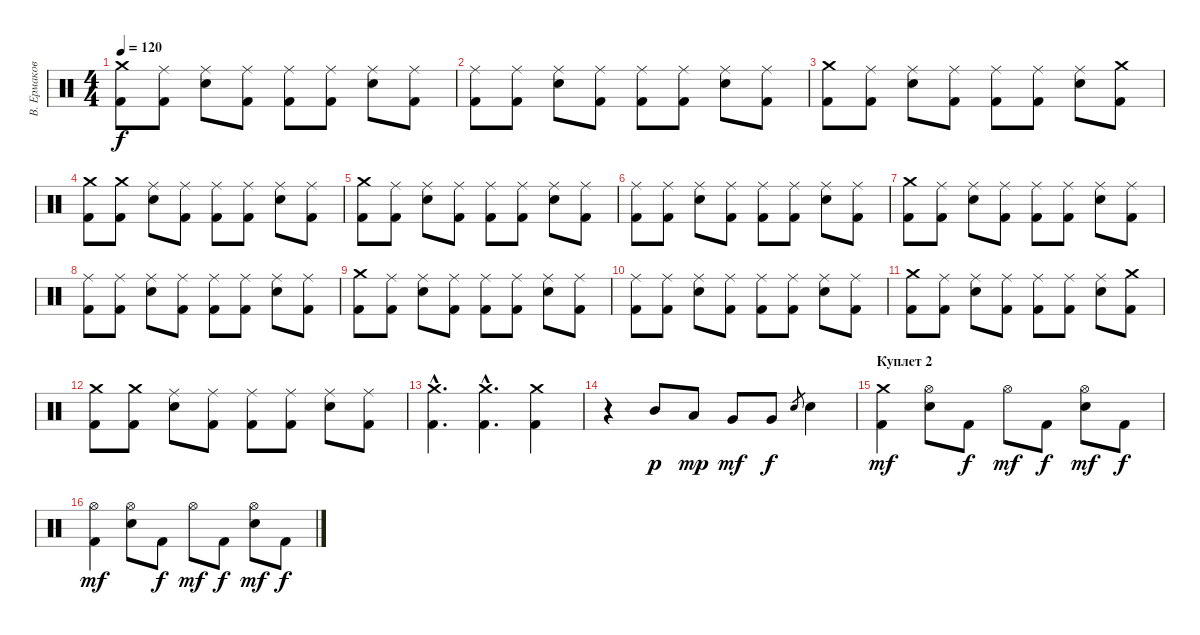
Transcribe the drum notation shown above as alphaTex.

\track ("В. Ермаков" "В. Ермаков") {instrument percussion}
\staff {score}
\articulation defaults
\ts (4 4)
\tempo 120
\clef neutral
\ks c
("Crash medium (hit)" "Kick (hit) 2").8{dy f} ("Ride (middle)" "Kick (hit) 2").8 ("Ride (middle)" "Electric Snare (hit)").8 ("Ride (middle)" "Kick (hit) 2").8 ("Ride (middle)" "Kick (hit) 2").8 ("Ride (middle)" "Kick (hit) 2").8 ("Ride (middle)" "Electric Snare (hit)").8 ("Ride (middle)" "Kick (hit) 2").8 |
("Ride (middle)" "Kick (hit) 2").8 ("Ride (middle)" "Kick (hit) 2").8 ("Ride (middle)" "Electric Snare (hit)").8 ("Ride (middle)" "Kick (hit) 2").8 ("Ride (middle)" "Kick (hit) 2").8 ("Ride (middle)" "Kick (hit) 2").8 ("Ride (middle)" "Electric Snare (hit)").8 ("Ride (middle)" "Kick (hit) 2").8 |
("Crash medium (hit)" "Kick (hit) 2").8 ("Ride (middle)" "Kick (hit) 2").8 ("Ride (middle)" "Electric Snare (hit)").8 ("Ride (middle)" "Kick (hit) 2").8 ("Ride (middle)" "Kick (hit) 2").8 ("Ride (middle)" "Kick (hit) 2").8 ("Ride (middle)" "Electric Snare (hit)").8 ("Crash medium (hit)" "Kick (hit) 2").8 |
("Crash medium (hit)" "Kick (hit) 2").8 ("Crash medium (hit)" "Kick (hit) 2").8 ("Ride (middle)" "Electric Snare (hit)").8 ("Ride (middle)" "Kick (hit) 2").8 ("Ride (middle)" "Kick (hit) 2").8 ("Ride (middle)" "Kick (hit) 2").8 ("Ride (middle)" "Electric Snare (hit)").8 ("Ride (middle)" "Kick (hit) 2").8 |
("Crash medium (hit)" "Kick (hit) 2").8 ("Ride (middle)" "Kick (hit) 2").8 ("Ride (middle)" "Electric Snare (hit)").8 ("Ride (middle)" "Kick (hit) 2").8 ("Ride (middle)" "Kick (hit) 2").8 ("Ride (middle)" "Kick (hit) 2").8 ("Ride (middle)" "Electric Snare (hit)").8 ("Ride (middle)" "Kick (hit) 2").8 |
("Ride (middle)" "Kick (hit) 2").8 ("Ride (middle)" "Kick (hit) 2").8 ("Ride (middle)" "Electric Snare (hit)").8 ("Ride (middle)" "Kick (hit) 2").8 ("Ride (middle)" "Kick (hit) 2").8 ("Ride (middle)" "Kick (hit) 2").8 ("Ride (middle)" "Electric Snare (hit)").8 ("Ride (middle)" "Kick (hit) 2").8 |
("Crash medium (hit)" "Kick (hit) 2").8 ("Ride (middle)" "Kick (hit) 2").8 ("Ride (middle)" "Electric Snare (hit)").8 ("Ride (middle)" "Kick (hit) 2").8 ("Ride (middle)" "Kick (hit) 2").8 ("Ride (middle)" "Kick (hit) 2").8 ("Ride (middle)" "Electric Snare (hit)").8 ("Ride (middle)" "Kick (hit) 2").8 |
("Ride (middle)" "Kick (hit) 2").8 ("Ride (middle)" "Kick (hit) 2").8 ("Ride (middle)" "Electric Snare (hit)").8 ("Ride (middle)" "Kick (hit) 2").8 ("Ride (middle)" "Kick (hit) 2").8 ("Ride (middle)" "Kick (hit) 2").8 ("Ride (middle)" "Electric Snare (hit)").8 ("Ride (middle)" "Kick (hit) 2").8 |
("Crash medium (hit)" "Kick (hit) 2").8 ("Ride (middle)" "Kick (hit) 2").8 ("Ride (middle)" "Electric Snare (hit)").8 ("Ride (middle)" "Kick (hit) 2").8 ("Ride (middle)" "Kick (hit) 2").8 ("Ride (middle)" "Kick (hit) 2").8 ("Ride (middle)" "Electric Snare (hit)").8 ("Ride (middle)" "Kick (hit) 2").8 |
("Ride (middle)" "Kick (hit) 2").8 ("Ride (middle)" "Kick (hit) 2").8 ("Ride (middle)" "Electric Snare (hit)").8 ("Ride (middle)" "Kick (hit) 2").8 ("Ride (middle)" "Kick (hit) 2").8 ("Ride (middle)" "Kick (hit) 2").8 ("Ride (middle)" "Electric Snare (hit)").8 ("Ride (middle)" "Kick (hit) 2").8 |
("Crash medium (hit)" "Kick (hit) 2").8 ("Ride (middle)" "Kick (hit) 2").8 ("Ride (middle)" "Electric Snare (hit)").8 ("Ride (middle)" "Kick (hit) 2").8 ("Ride (middle)" "Kick (hit) 2").8 ("Ride (middle)" "Kick (hit) 2").8 ("Ride (middle)" "Electric Snare (hit)").8 ("Crash medium (hit)" "Kick (hit) 2").8 |
("Crash medium (hit)" "Kick (hit) 2").8 ("Crash medium (hit)" "Kick (hit) 2").8 ("Ride (middle)" "Electric Snare (hit)").8 ("Ride (middle)" "Kick (hit) 2").8 ("Ride (middle)" "Kick (hit) 2").8 ("Ride (middle)" "Kick (hit) 2").8 ("Ride (middle)" "Electric Snare (hit)").8 ("Ride (middle)" "Kick (hit) 2").8 |
("Kick (hit) 2"{hac} "Crash medium (hit)"{hac}).4{d} ("Kick (hit) 2"{hac} "Crash medium (hit)"{hac}).4{d} ("Kick (hit) 2" "Crash medium (hit)").4 |
r.4 "Mid Tom (hit)".8{dy p} "Low Tom (hit)".8{dy mp} "Very Low Tom (hit)".8{dy mf} "Very Low Tom (hit)".8{dy f} "Electric Snare (hit)".8{gr} "Electric Snare (hit)".4 |
\section ("" "Куплет 2")
("Crash medium (hit)" "Kick (hit) 2").4{dy mf} ("Hi-Hat (open)" "Electric Snare (hit)").8 "Kick (hit) 2".8{dy f} "Hi-Hat (open)".8{dy mf} "Kick (hit) 2".8{dy f} ("Hi-Hat (open)" "Electric Snare (hit)").8{dy mf} "Kick (hit) 2".8{dy f} |
("Hi-Hat (open)" "Kick (hit) 2").4{dy mf} ("Hi-Hat (open)" "Electric Snare (hit)").8 "Kick (hit) 2".8{dy f} "Hi-Hat (open)".8{dy mf} "Kick (hit) 2".8{dy f} ("Hi-Hat (open)" "Electric Snare (hit)").8{dy mf} "Kick (hit) 2".8{dy f}
